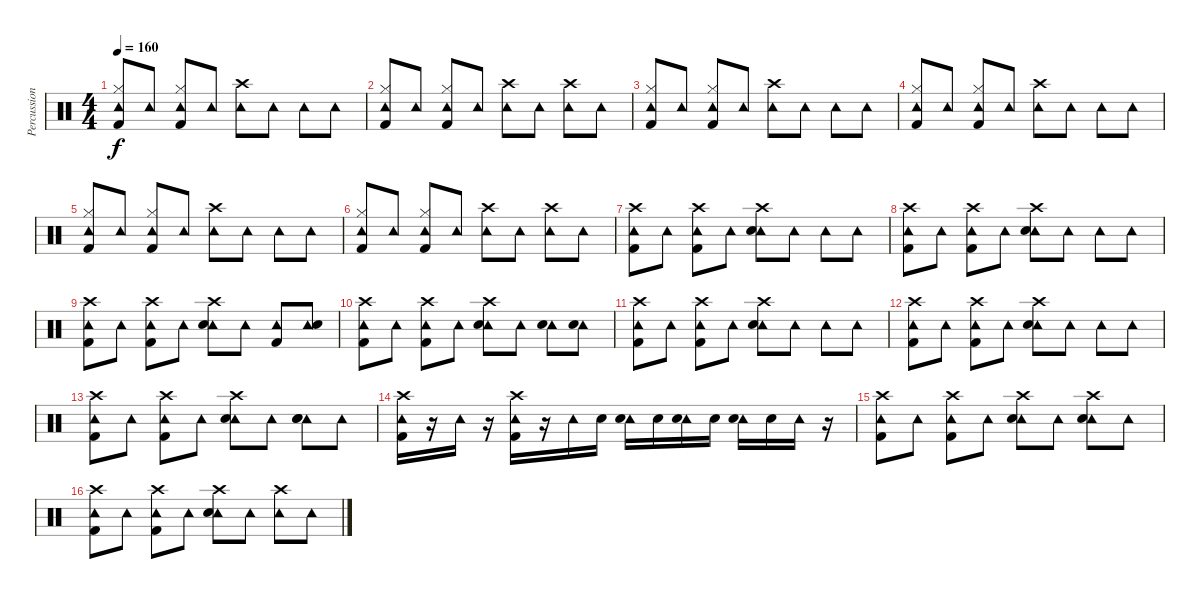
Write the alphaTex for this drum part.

\track ("Percussion" "Percussion") {instrument percussion}
\staff {score}
\articulation defaults
\ts (4 4)
\tempo 160
\clef neutral
\ks c
("Tambourine (hit)" "Hi-Hat (closed)" "Kick (hit) 2").8{dy f} "Tambourine (hit)".8 ("Tambourine (hit)" "Hi-Hat (closed)" "Kick (hit) 2").8 "Tambourine (hit)".8 ("Tambourine (hit)" "Crash high (hit)").8 "Tambourine (hit)".8 "Tambourine (hit)".8 "Tambourine (hit)".8 |
("Tambourine (hit)" "Hi-Hat (closed)" "Kick (hit) 2").8 "Tambourine (hit)".8 ("Tambourine (hit)" "Hi-Hat (closed)" "Kick (hit) 2").8 "Tambourine (hit)".8 ("Tambourine (hit)" "Crash high (hit)").8 "Tambourine (hit)".8 ("Tambourine (hit)" "Crash high (hit)").8 "Tambourine (hit)".8 |
("Tambourine (hit)" "Hi-Hat (closed)" "Kick (hit) 2").8 "Tambourine (hit)".8 ("Tambourine (hit)" "Hi-Hat (closed)" "Kick (hit) 2").8 "Tambourine (hit)".8 ("Tambourine (hit)" "Crash high (hit)").8 "Tambourine (hit)".8 "Tambourine (hit)".8 "Tambourine (hit)".8 |
("Tambourine (hit)" "Hi-Hat (closed)" "Kick (hit) 2").8 "Tambourine (hit)".8 ("Tambourine (hit)" "Hi-Hat (closed)" "Kick (hit) 2").8 "Tambourine (hit)".8 ("Tambourine (hit)" "Crash high (hit)").8 "Tambourine (hit)".8 "Tambourine (hit)".8 "Tambourine (hit)".8 |
("Tambourine (hit)" "Hi-Hat (closed)" "Kick (hit) 2").8 "Tambourine (hit)".8 ("Tambourine (hit)" "Hi-Hat (closed)" "Kick (hit) 2").8 "Tambourine (hit)".8 ("Tambourine (hit)" "Crash high (hit)").8 "Tambourine (hit)".8 "Tambourine (hit)".8 "Tambourine (hit)".8 |
("Tambourine (hit)" "Hi-Hat (closed)" "Kick (hit) 2").8 "Tambourine (hit)".8 ("Tambourine (hit)" "Hi-Hat (closed)" "Kick (hit) 2").8 "Tambourine (hit)".8 ("Tambourine (hit)" "Crash high (hit)").8 "Tambourine (hit)".8 ("Tambourine (hit)" "Crash high (hit)").8 "Tambourine (hit)".8 |
("Tambourine (hit)" "Crash high (hit)" "Kick (hit) 2").8 "Tambourine (hit)".8 ("Tambourine (hit)" "Crash high (hit)" "Kick (hit) 2").8 "Tambourine (hit)".8 ("Tambourine (hit)" "Snare (hit) 2" "Crash high (hit)").8 "Tambourine (hit)".8 "Tambourine (hit)".8 "Tambourine (hit)".8 |
("Tambourine (hit)" "Crash high (hit)" "Kick (hit) 2").8 "Tambourine (hit)".8 ("Tambourine (hit)" "Crash high (hit)" "Kick (hit) 2").8 "Tambourine (hit)".8 ("Tambourine (hit)" "Snare (hit) 2" "Crash high (hit)").8 "Tambourine (hit)".8 "Tambourine (hit)".8 "Tambourine (hit)".8 |
("Tambourine (hit)" "Crash high (hit)" "Kick (hit) 2").8 "Tambourine (hit)".8 ("Tambourine (hit)" "Crash high (hit)" "Kick (hit) 2").8 "Tambourine (hit)".8 ("Tambourine (hit)" "Snare (hit) 2" "Crash high (hit)").8 "Tambourine (hit)".8 ("Tambourine (hit)" "Kick (hit) 2").8 ("Tambourine (hit)" "Snare (hit) 2").8 |
("Tambourine (hit)" "Crash high (hit)" "Kick (hit) 2").8 "Tambourine (hit)".8 ("Tambourine (hit)" "Crash high (hit)" "Kick (hit) 2").8 "Tambourine (hit)".8 ("Tambourine (hit)" "Snare (hit) 2" "Crash high (hit)").8 "Tambourine (hit)".8 ("Tambourine (hit)" "Snare (hit) 2").8 ("Tambourine (hit)" "Snare (hit) 2").8 |
("Tambourine (hit)" "Crash high (hit)" "Kick (hit) 2").8 "Tambourine (hit)".8 ("Tambourine (hit)" "Crash high (hit)" "Kick (hit) 2").8 "Tambourine (hit)".8 ("Tambourine (hit)" "Snare (hit) 2" "Crash high (hit)").8 "Tambourine (hit)".8 "Tambourine (hit)".8 "Tambourine (hit)".8 |
("Tambourine (hit)" "Crash high (hit)" "Kick (hit) 2").8 "Tambourine (hit)".8 ("Tambourine (hit)" "Crash high (hit)" "Kick (hit) 2").8 "Tambourine (hit)".8 ("Tambourine (hit)" "Snare (hit) 2" "Crash high (hit)").8 "Tambourine (hit)".8 "Tambourine (hit)".8 "Tambourine (hit)".8 |
("Tambourine (hit)" "Crash high (hit)" "Kick (hit) 2").8 "Tambourine (hit)".8 ("Tambourine (hit)" "Crash high (hit)" "Kick (hit) 2").8 "Tambourine (hit)".8 ("Tambourine (hit)" "Snare (hit) 2" "Crash high (hit)").8 "Tambourine (hit)".8 ("Tambourine (hit)" "Snare (hit) 2" "Snare (hit) 2").8 "Tambourine (hit)".8 |
("Tambourine (hit)" "Crash high (hit)" "Kick (hit) 2").16 r.16 "Tambourine (hit)".16 r.16 ("Tambourine (hit)" "Crash high (hit)" "Kick (hit) 2").16 r.16 "Tambourine (hit)".16 "Snare (hit) 2".16 ("Tambourine (hit)" "Snare (hit) 2").16 "Snare (hit) 2".16 ("Tambourine (hit)" "Snare (hit) 2").16 "Snare (hit) 2".16 ("Tambourine (hit)" "Snare (hit) 2").16 "Snare (hit) 2".16 "Tambourine (hit)".16 r.16 |
("Tambourine (hit)" "Crash high (hit)" "Kick (hit) 2").8 "Tambourine (hit)".8 ("Tambourine (hit)" "Crash high (hit)" "Kick (hit) 2").8 "Tambourine (hit)".8 ("Tambourine (hit)" "Snare (hit) 2" "Crash high (hit)").8 "Tambourine (hit)".8 ("Tambourine (hit)" "Snare (hit) 2" "Crash high (hit)").8 "Tambourine (hit)".8 |
("Tambourine (hit)" "Crash high (hit)" "Kick (hit) 2").8 "Tambourine (hit)".8 ("Tambourine (hit)" "Crash high (hit)" "Kick (hit) 2").8 "Tambourine (hit)".8 ("Tambourine (hit)" "Snare (hit) 2" "Crash high (hit)").8 "Tambourine (hit)".8 ("Tambourine (hit)" "Crash high (hit)").8 "Tambourine (hit)".8
